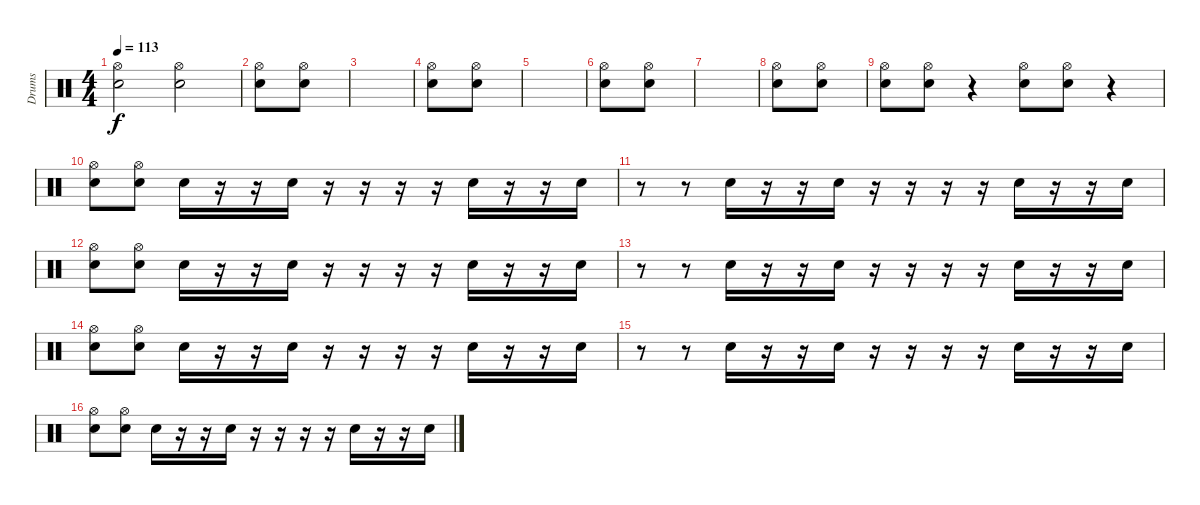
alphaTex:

\track ("Drums" "Drums") {instrument percussion}
\staff {score}
\articulation defaults
\ts (4 4)
\tempo 113
\clef neutral
\ks c
("Hi-Hat (open)" "Electric Snare (hit)").2{dy f} ("Hi-Hat (open)" "Electric Snare (hit)").2 |
("Hi-Hat (open)" "Electric Snare (hit)").8 ("Hi-Hat (open)" "Electric Snare (hit)").8 |
|
("Hi-Hat (open)" "Electric Snare (hit)").8 ("Hi-Hat (open)" "Electric Snare (hit)").8 |
|
("Hi-Hat (open)" "Electric Snare (hit)").8 ("Hi-Hat (open)" "Electric Snare (hit)").8 |
|
("Hi-Hat (open)" "Electric Snare (hit)").8 ("Hi-Hat (open)" "Electric Snare (hit)").8 |
("Hi-Hat (open)" "Electric Snare (hit)").8 ("Hi-Hat (open)" "Electric Snare (hit)").8 r.4 ("Hi-Hat (open)" "Electric Snare (hit)").8 ("Hi-Hat (open)" "Electric Snare (hit)").8 r.4 |
("Hi-Hat (open)" "Electric Snare (hit)").8 ("Hi-Hat (open)" "Electric Snare (hit)").8 "Electric Snare (hit)".16 r.16 r.16 "Electric Snare (hit)".16 r.16 r.16 r.16 r.16 "Electric Snare (hit)".16 r.16 r.16 "Electric Snare (hit)".16 |
r.8 r.8 "Electric Snare (hit)".16 r.16 r.16 "Electric Snare (hit)".16 r.16 r.16 r.16 r.16 "Electric Snare (hit)".16 r.16 r.16 "Electric Snare (hit)".16 |
("Hi-Hat (open)" "Electric Snare (hit)").8 ("Hi-Hat (open)" "Electric Snare (hit)").8 "Electric Snare (hit)".16 r.16 r.16 "Electric Snare (hit)".16 r.16 r.16 r.16 r.16 "Electric Snare (hit)".16 r.16 r.16 "Electric Snare (hit)".16 |
r.8 r.8 "Electric Snare (hit)".16 r.16 r.16 "Electric Snare (hit)".16 r.16 r.16 r.16 r.16 "Electric Snare (hit)".16 r.16 r.16 "Electric Snare (hit)".16 |
("Hi-Hat (open)" "Electric Snare (hit)").8 ("Hi-Hat (open)" "Electric Snare (hit)").8 "Electric Snare (hit)".16 r.16 r.16 "Electric Snare (hit)".16 r.16 r.16 r.16 r.16 "Electric Snare (hit)".16 r.16 r.16 "Electric Snare (hit)".16 |
r.8 r.8 "Electric Snare (hit)".16 r.16 r.16 "Electric Snare (hit)".16 r.16 r.16 r.16 r.16 "Electric Snare (hit)".16 r.16 r.16 "Electric Snare (hit)".16 |
("Hi-Hat (open)" "Electric Snare (hit)").8 ("Hi-Hat (open)" "Electric Snare (hit)").8 "Electric Snare (hit)".16 r.16 r.16 "Electric Snare (hit)".16 r.16 r.16 r.16 r.16 "Electric Snare (hit)".16 r.16 r.16 "Electric Snare (hit)".16
